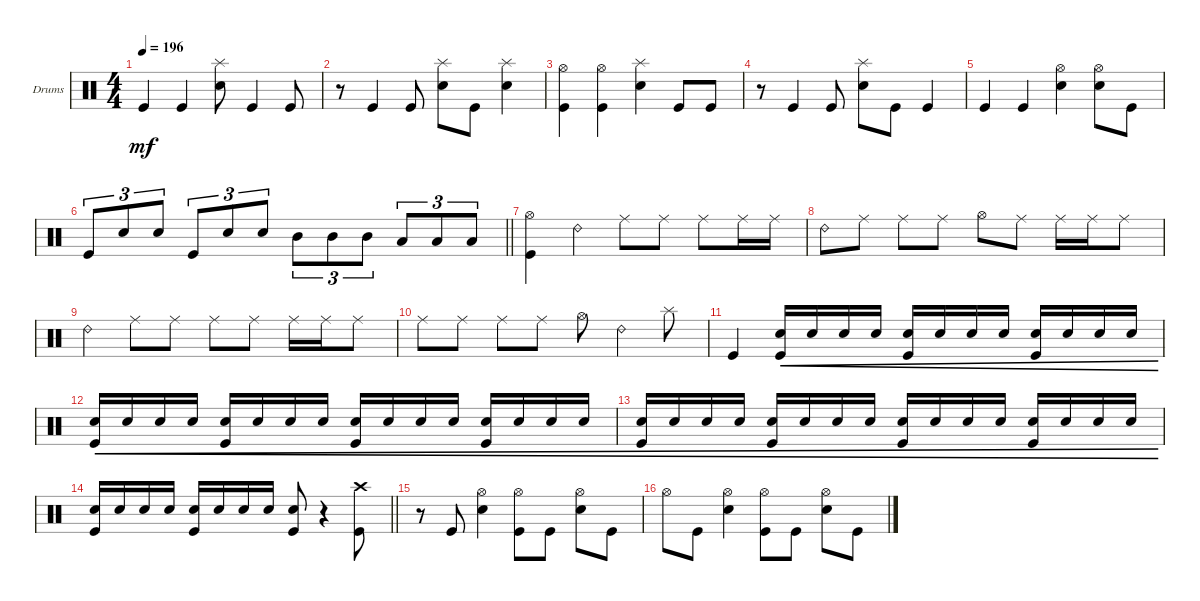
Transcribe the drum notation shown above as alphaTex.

\defaultSystemsLayout 4
\bracketExtendMode groupsimilarinstruments
\firstSystemTrackNameOrientation horizontal
\otherSystemsTrackNameOrientation horizontal
\track ("Drumkit" "Drums") {instrument percussion}
\staff {score}
\articulation defaults
\ts (4 4)
\tempo 196
\clef neutral
\scale
0.333333
\ks c "Kick (hit)".4{dy mf} "Kick (hit)".4
("Snare (hit) 2" "Splash (hit)").8 "Kick (hit)".4 "Kick (hit)".8 |
\scale
0.333333 r.8 "Kick (hit)".4 "Kick (hit)".8 ("Snare (hit) 2" "Splash (hit)").8 "Kick (hit)".8 ("Snare (hit) 2" "Splash (hit)").4 |
\scale
0.333333 ("Kick (hit)" "Hi-Hat (open)").4 ("Kick (hit)" "Hi-Hat (open)").4 ("Snare (hit) 2" "Splash (hit)").4 "Kick (hit)".8 "Kick (hit)".8 |
\scale
0.333333 r.8 "Kick (hit)".4 "Kick (hit)".8 ("Snare (hit) 2" "Splash (hit)").8 "Kick (hit)".8 "Kick (hit)".4 |
\scale
0.333333 "Kick (hit)".4 "Kick (hit)".4 ("Snare (hit) 2" "Hi-Hat (open)").4 ("Snare (hit) 2" "Hi-Hat (open)").8 "Kick (hit)".8 |
\scale
0.333333
\barLineRight lightlight "Kick (hit)".8{tu (3 2)} "Snare (hit) 2".8{tu (3 2)} "Snare (hit) 2".8{tu (3 2)} "Kick (hit)".8{tu (3 2)} "Snare (hit) 2".8{tu (3 2)} "Snare (hit) 2".8{tu (3 2)} "Mid Tom (hit)".8{tu (3 2)} "Mid Tom (hit)".8{tu (3 2)} "Mid Tom (hit)".8{tu (3 2)} "Low Tom (hit)".8{tu (3 2)} "Low Tom (hit)".8{tu (3 2)} "Low Tom (hit)".8{tu (3 2)}
|
\scale
0.333333 ("Kick (hit)" "Hi-Hat (open)").4 "Ride (bell) 2".4 "Ride (middle)".8 "Ride (middle)".8 "Ride (middle)".8 "Ride (middle)".16 "Ride (middle)".16 |
\scale
0.333333 "Ride (bell) 2".8 "Ride (middle)".8 "Ride (middle)".8 "Ride (middle)".8 "Hi-Hat (open)".8 "Ride (middle)".8 "Ride (middle)".16 "Ride (middle)".16 "Ride (middle)".8 |
\scale
0.333333 "Ride (bell) 2".4 "Ride (middle)".8 "Ride (middle)".8 "Ride (middle)".8 "Ride (middle)".8 "Ride (middle)".16 "Ride (middle)".16 "Ride (middle)".8 |
\scale
0.333333 "Ride (middle)".8 "Ride (middle)".8 "Ride (middle)".8 "Ride (middle)".8 "Hi-Hat (open)".8 "Ride (bell) 2".4 "Splash (hit)".8 |
\scale
0.333333 "Kick (hit)".4 ("Snare (hit) 2" "Kick (hit)").16{cre} "Snare (hit) 2".16{cre} "Snare (hit) 2".16{cre} "Snare (hit) 2".16{cre} ("Snare (hit) 2" "Kick (hit)").16{cre} "Snare (hit) 2".16{cre} "Snare (hit) 2".16{cre} "Snare (hit) 2".16{cre} ("Snare (hit) 2" "Kick (hit)").16{cre} "Snare (hit) 2".16{cre} "Snare (hit) 2".16{cre} "Snare (hit) 2".16{cre} |
\scale
0.333333 ("Snare (hit) 2" "Kick (hit)").16{cre} "Snare (hit) 2".16{cre} "Snare (hit) 2".16{cre} "Snare (hit) 2".16{cre} ("Snare (hit) 2" "Kick (hit)").16{cre} "Snare (hit) 2".16{cre} "Snare (hit) 2".16{cre} "Snare (hit) 2".16{cre} ("Snare (hit) 2" "Kick (hit)").16{cre} "Snare (hit) 2".16{cre} "Snare (hit) 2".16{cre} "Snare (hit) 2".16{cre} ("Snare (hit) 2" "Kick (hit)").16{cre} "Snare (hit) 2".16{cre} "Snare (hit) 2".16{cre} "Snare (hit) 2".16{cre} |
\scale
0.333333 ("Snare (hit) 2" "Kick (hit)").16{cre} "Snare (hit) 2".16{cre} "Snare (hit) 2".16{cre} "Snare (hit) 2".16{cre} ("Snare (hit) 2" "Kick (hit)").16{cre} "Snare (hit) 2".16{cre} "Snare (hit) 2".16{cre} "Snare (hit) 2".16{cre} ("Snare (hit) 2" "Kick (hit)").16{cre} "Snare (hit) 2".16{cre} "Snare (hit) 2".16{cre} "Snare (hit) 2".16{cre} ("Snare (hit) 2" "Kick (hit)").16{cre} "Snare (hit) 2".16{cre} "Snare (hit) 2".16{cre} "Snare (hit) 2".16{cre} |
\scale
0.333333
\barLineRight lightlight
("Snare (hit) 2" "Kick (hit)").16 "Snare (hit) 2".16 "Snare (hit) 2".16 "Snare (hit) 2".16 ("Snare (hit) 2" "Kick (hit)").16 "Snare (hit) 2".16 "Snare (hit) 2".16 "Snare (hit) 2".16 ("Kick (hit)" "Snare (hit) 2").8 r.4 ("Kick (hit)" "Crash high (hit)").8 |
\scale
0.333333 r.8 "Kick (hit)".8 ("Snare (hit) 2" "Hi-Hat (open)").4 ("Kick (hit)" "Hi-Hat (open)").8 "Kick (hit)".8 ("Snare (hit) 2" "Hi-Hat (open)").8 "Kick (hit)".8 |
\scale
0.333333 "Hi-Hat (open)".8 "Kick (hit)".8 ("Snare (hit) 2" "Hi-Hat (open)").4 ("Kick (hit)" "Hi-Hat (open)").8 "Kick (hit)".8 ("Snare (hit) 2" "Hi-Hat (open)").8 "Kick (hit)".8
